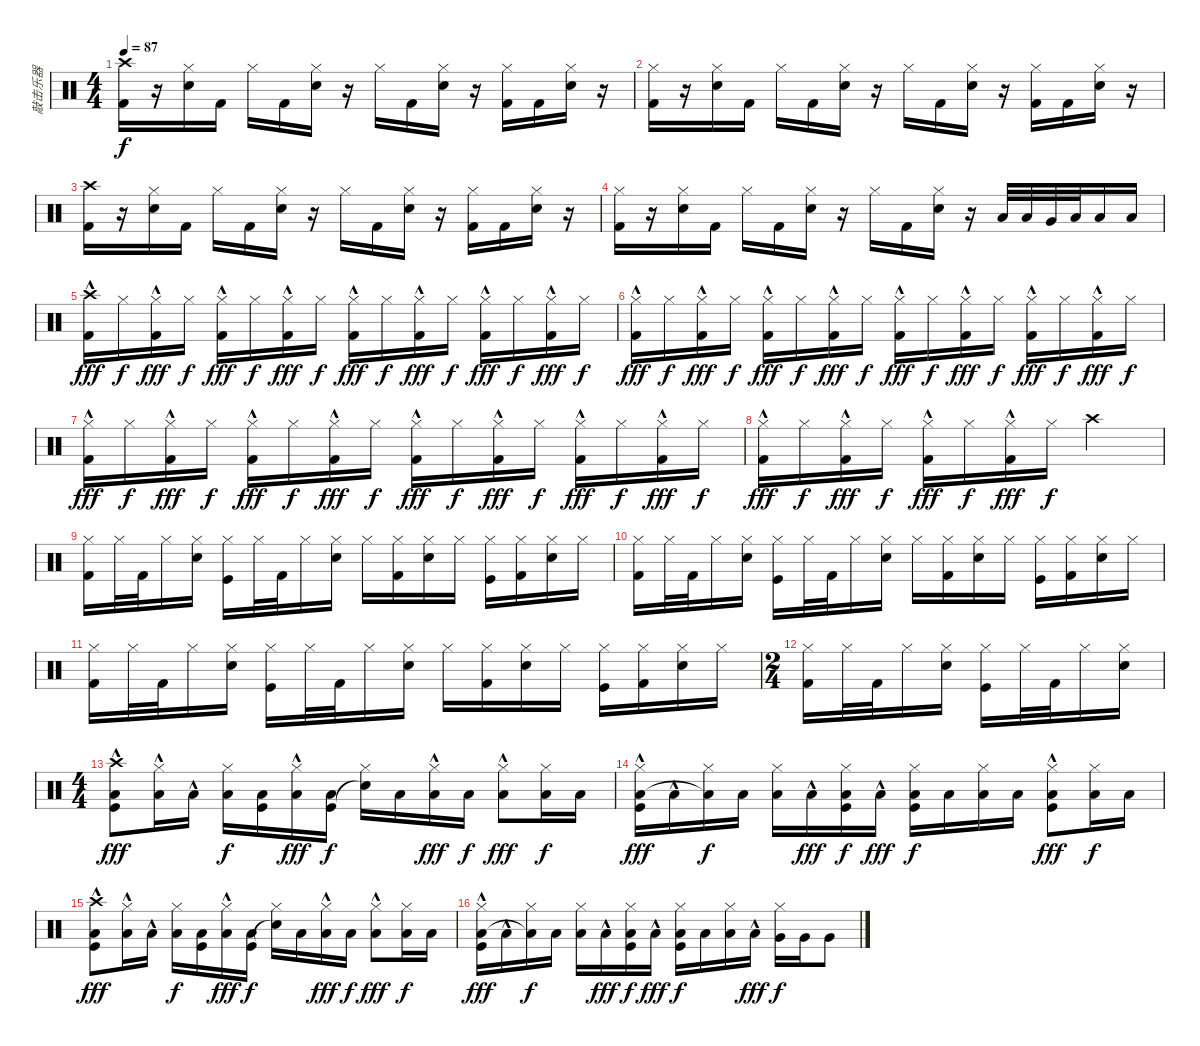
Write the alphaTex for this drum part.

\track ("敲击乐器" "敲击乐器") {instrument percussion}
\staff {score}
\articulation defaults
\ts (4 4)
\tempo 87
\clef neutral
\ks c
("Crash high (hit)" "Kick (hit) 2").16{dy f} r.16 ("Hi-Hat (closed)" "Snare (hit) 2").16 "Kick (hit) 2".16 "Hi-Hat (closed)".16 "Kick (hit) 2".16 ("Hi-Hat (closed)" "Snare (hit) 2").16 r.16 "Hi-Hat (closed)".16 "Kick (hit) 2".16 ("Hi-Hat (closed)" "Snare (hit) 2").16 r.16 ("Hi-Hat (closed)" "Kick (hit) 2").16 "Kick (hit) 2".16 ("Hi-Hat (closed)" "Snare (hit) 2").16 r.16 |
("Hi-Hat (closed)" "Kick (hit) 2").16 r.16 ("Hi-Hat (closed)" "Snare (hit) 2").16 "Kick (hit) 2".16 "Hi-Hat (closed)".16 "Kick (hit) 2".16 ("Hi-Hat (closed)" "Snare (hit) 2").16 r.16 "Hi-Hat (closed)".16 "Kick (hit) 2".16 ("Hi-Hat (closed)" "Snare (hit) 2").16 r.16 ("Hi-Hat (closed)" "Kick (hit) 2").16 "Kick (hit) 2".16 ("Hi-Hat (closed)" "Snare (hit) 2").16 r.16 |
("Crash high (hit)" "Kick (hit) 2").16 r.16 ("Hi-Hat (closed)" "Snare (hit) 2").16 "Kick (hit) 2".16 "Hi-Hat (closed)".16 "Kick (hit) 2".16 ("Hi-Hat (closed)" "Snare (hit) 2").16 r.16 "Hi-Hat (closed)".16 "Kick (hit) 2".16 ("Hi-Hat (closed)" "Snare (hit) 2").16 r.16 ("Hi-Hat (closed)" "Kick (hit) 2").16 "Kick (hit) 2".16 ("Hi-Hat (closed)" "Snare (hit) 2").16 r.16 |
("Hi-Hat (closed)" "Kick (hit) 2").16 r.16 ("Hi-Hat (closed)" "Snare (hit) 2").16 "Kick (hit) 2".16 "Hi-Hat (closed)".16 "Kick (hit) 2".16 ("Hi-Hat (closed)" "Snare (hit) 2").16 r.16 "Hi-Hat (closed)".16 "Kick (hit) 2".16 ("Hi-Hat (closed)" "Snare (hit) 2").16 r.16 "Low Tom (hit)".32 "Low Tom (hit)".32 "Very Low Tom (hit)".32 "Low Floor Tom (hit)".32 "Low Floor Tom (hit)".16 "Low Floor Tom (hit)".16 |
("Crash high (hit)"{hac} "Kick (hit) 2"{hac}).16{dy fff} "Hi-Hat (closed)".16{dy f} ("Hi-Hat (closed)"{hac} "Kick (hit) 2").16{dy fff} "Hi-Hat (closed)".16{dy f} ("Hi-Hat (closed)"{hac} "Kick (hit) 2").16{dy fff} "Hi-Hat (closed)".16{dy f} ("Hi-Hat (closed)"{hac} "Kick (hit) 2").16{dy fff} "Hi-Hat (closed)".16{dy f} ("Hi-Hat (closed)"{hac} "Kick (hit) 2").16{dy fff} "Hi-Hat (closed)".16{dy f} ("Hi-Hat (closed)"{hac} "Kick (hit) 2").16{dy fff} "Hi-Hat (closed)".16{dy f} ("Hi-Hat (closed)"{hac} "Kick (hit) 2").16{dy fff} "Hi-Hat (closed)".16{dy f} ("Hi-Hat (closed)"{hac} "Kick (hit) 2").16{dy fff} "Hi-Hat (closed)".16{dy f} |
("Hi-Hat (closed)"{hac} "Kick (hit) 2"{hac}).16{dy fff} "Hi-Hat (closed)".16{dy f} ("Hi-Hat (closed)"{hac} "Kick (hit) 2").16{dy fff} "Hi-Hat (closed)".16{dy f} ("Hi-Hat (closed)"{hac} "Kick (hit) 2").16{dy fff} "Hi-Hat (closed)".16{dy f} ("Hi-Hat (closed)"{hac} "Kick (hit) 2").16{dy fff} "Hi-Hat (closed)".16{dy f} ("Hi-Hat (closed)"{hac} "Kick (hit) 2").16{dy fff} "Hi-Hat (closed)".16{dy f} ("Hi-Hat (closed)"{hac} "Kick (hit) 2").16{dy fff} "Hi-Hat (closed)".16{dy f} ("Hi-Hat (closed)"{hac} "Kick (hit) 2").16{dy fff} "Hi-Hat (closed)".16{dy f} ("Hi-Hat (closed)"{hac} "Kick (hit) 2").16{dy fff} "Hi-Hat (closed)".16{dy f} |
("Hi-Hat (closed)"{hac} "Kick (hit) 2"{hac}).16{dy fff} "Hi-Hat (closed)".16{dy f} ("Hi-Hat (closed)"{hac} "Kick (hit) 2").16{dy fff} "Hi-Hat (closed)".16{dy f} ("Hi-Hat (closed)"{hac} "Kick (hit) 2").16{dy fff} "Hi-Hat (closed)".16{dy f} ("Hi-Hat (closed)"{hac} "Kick (hit) 2").16{dy fff} "Hi-Hat (closed)".16{dy f} ("Hi-Hat (closed)"{hac} "Kick (hit) 2").16{dy fff} "Hi-Hat (closed)".16{dy f} ("Hi-Hat (closed)"{hac} "Kick (hit) 2").16{dy fff} "Hi-Hat (closed)".16{dy f} ("Hi-Hat (closed)"{hac} "Kick (hit) 2").16{dy fff} "Hi-Hat (closed)".16{dy f} ("Hi-Hat (closed)"{hac} "Kick (hit) 2").16{dy fff} "Hi-Hat (closed)".16{dy f} |
("Hi-Hat (closed)"{hac} "Kick (hit) 2"{hac}).16{dy fff} "Hi-Hat (closed)".16{dy f} ("Hi-Hat (closed)"{hac} "Kick (hit) 2").16{dy fff} "Hi-Hat (closed)".16{dy f} ("Hi-Hat (closed)"{hac} "Kick (hit) 2").16{dy fff} "Hi-Hat (closed)".16{dy f} ("Hi-Hat (closed)"{hac} "Kick (hit) 2").16{dy fff} "Hi-Hat (closed)".16{dy f} "Crash high (hit)".2 |
("Hi-Hat (closed)" "Kick (hit) 2").16 "Hi-Hat (closed)".32 "Kick (hit) 2".32 "Hi-Hat (closed)".16 ("Hi-Hat (closed)" "Snare (hit) 2").16 ("Hi-Hat (closed)" "Kick (hit)").16 "Hi-Hat (closed)".32 "Kick (hit) 2".32 "Hi-Hat (closed)".16 ("Hi-Hat (closed)" "Snare (hit) 2").16 "Hi-Hat (closed)".16 ("Hi-Hat (closed)" "Kick (hit) 2").16 ("Hi-Hat (closed)" "Snare (hit) 2").16 "Hi-Hat (closed)".16 ("Hi-Hat (closed)" "Kick (hit)").16 ("Hi-Hat (closed)" "Kick (hit) 2").16 ("Hi-Hat (closed)" "Snare (hit) 2").16 "Hi-Hat (closed)".16 |
("Hi-Hat (closed)" "Kick (hit) 2").16 "Hi-Hat (closed)".32 "Kick (hit) 2".32 "Hi-Hat (closed)".16 ("Hi-Hat (closed)" "Snare (hit) 2").16 ("Hi-Hat (closed)" "Kick (hit)").16 "Hi-Hat (closed)".32 "Kick (hit) 2".32 "Hi-Hat (closed)".16 ("Hi-Hat (closed)" "Snare (hit) 2").16 "Hi-Hat (closed)".16 ("Hi-Hat (closed)" "Kick (hit) 2").16 ("Hi-Hat (closed)" "Snare (hit) 2").16 "Hi-Hat (closed)".16 ("Hi-Hat (closed)" "Kick (hit)").16 ("Hi-Hat (closed)" "Kick (hit) 2").16 ("Hi-Hat (closed)" "Snare (hit) 2").16 "Hi-Hat (closed)".16 |
("Hi-Hat (closed)" "Kick (hit) 2").16 "Hi-Hat (closed)".32 "Kick (hit) 2".32 "Hi-Hat (closed)".16 ("Hi-Hat (closed)" "Snare (hit) 2").16 ("Hi-Hat (closed)" "Kick (hit)").16 "Hi-Hat (closed)".32 "Kick (hit) 2".32 "Hi-Hat (closed)".16 ("Hi-Hat (closed)" "Snare (hit) 2").16 "Hi-Hat (closed)".16 ("Hi-Hat (closed)" "Kick (hit) 2").16 ("Hi-Hat (closed)" "Snare (hit) 2").16 "Hi-Hat (closed)".16 ("Hi-Hat (closed)" "Kick (hit)").16 ("Hi-Hat (closed)" "Kick (hit) 2").16 ("Hi-Hat (closed)" "Snare (hit) 2").16 "Hi-Hat (closed)".16 |
\ts (2 4)
("Hi-Hat (closed)" "Kick (hit) 2").16 "Hi-Hat (closed)".32 "Kick (hit) 2".32 "Hi-Hat (closed)".16 ("Hi-Hat (closed)" "Snare (hit) 2").16 ("Hi-Hat (closed)" "Kick (hit)").16 "Hi-Hat (closed)".32 "Kick (hit) 2".32 "Hi-Hat (closed)".16 ("Hi-Hat (closed)" "Snare (hit) 2").16 |
\ts (4 4)
("Crash high (hit)" "Low Floor Tom (hit)"{hac} "Kick (hit)").8{dy fff} ("Hi-Hat (closed)" "Low Floor Tom (hit)"{hac}).16 "Low Floor Tom (hit)"{hac}.16 ("Hi-Hat (closed)" "Low Floor Tom (hit)").16{dy f} ("Low Floor Tom (hit)" "Kick (hit)").16 ("Hi-Hat (closed)" "Low Floor Tom (hit)"{hac}).16{dy fff} ("Low Floor Tom (hit)" "Kick (hit)").16{dy f} ("Hi-Hat (closed)" "Snare (hit)"{t}).16 "Low Floor Tom (hit)".16 ("Hi-Hat (closed)" "Low Floor Tom (hit)"{hac}).16{dy fff} "Low Floor Tom (hit)".16{dy f} ("Hi-Hat (closed)" "Low Floor Tom (hit)"{hac}).8{dy fff} ("Hi-Hat (closed)" "Low Floor Tom (hit)").16{dy f} "Low Floor Tom (hit)".16 |
("Hi-Hat (closed)" "Low Floor Tom (hit)"{hac} "Kick (hit)").16{dy fff} "Low Floor Tom (hit)"{hac}.16 ("Hi-Hat (closed)" "Low Floor Tom (hit)"{t}).16{dy f} "Low Floor Tom (hit)".16 ("Hi-Hat (closed)" "Low Floor Tom (hit)").16 "Low Floor Tom (hit)"{hac}.16{dy fff} ("Hi-Hat (closed)" "Low Floor Tom (hit)" "Kick (hit)").16{dy f} "Low Floor Tom (hit)"{hac}.16{dy fff} ("Hi-Hat (closed)" "Low Floor Tom (hit)" "Kick (hit)").16{dy f} "Low Floor Tom (hit)".16 ("Hi-Hat (closed)" "Low Floor Tom (hit)").16 "Low Floor Tom (hit)".16 ("Hi-Hat (closed)" "Low Floor Tom (hit)"{hac} "Kick (hit)").8{dy fff} ("Hi-Hat (closed)" "Low Floor Tom (hit)").16{dy f} "Low Floor Tom (hit)".16 |
("Crash high (hit)" "Low Floor Tom (hit)"{hac} "Kick (hit)").8{dy fff} ("Hi-Hat (closed)" "Low Floor Tom (hit)"{hac}).16 "Low Floor Tom (hit)"{hac}.16 ("Hi-Hat (closed)" "Low Floor Tom (hit)").16{dy f} ("Low Floor Tom (hit)" "Kick (hit)").16 ("Hi-Hat (closed)" "Low Floor Tom (hit)"{hac}).16{dy fff} ("Low Floor Tom (hit)" "Kick (hit)").16{dy f} ("Hi-Hat (closed)" "Snare (hit)"{t}).16 "Low Floor Tom (hit)".16 ("Hi-Hat (closed)" "Low Floor Tom (hit)"{hac}).16{dy fff} "Low Floor Tom (hit)".16{dy f} ("Hi-Hat (closed)" "Low Floor Tom (hit)"{hac}).8{dy fff} ("Hi-Hat (closed)" "Low Floor Tom (hit)").16{dy f} "Low Floor Tom (hit)".16 |
("Hi-Hat (closed)" "Low Floor Tom (hit)"{hac} "Kick (hit)").16{dy fff} "Low Floor Tom (hit)"{hac}.16 ("Hi-Hat (closed)" "Low Floor Tom (hit)"{t}).16{dy f} "Low Floor Tom (hit)".16 ("Hi-Hat (closed)" "Low Floor Tom (hit)").16 "Low Floor Tom (hit)"{hac}.16{dy fff} ("Hi-Hat (closed)" "Low Floor Tom (hit)" "Kick (hit)").16{dy f} "Low Floor Tom (hit)"{hac}.16{dy fff} ("Hi-Hat (closed)" "Low Floor Tom (hit)" "Kick (hit)").16{dy f} "Low Floor Tom (hit)".16 ("Hi-Hat (closed)" "Low Floor Tom (hit)").16 "Low Floor Tom (hit)"{hac}.16{dy fff} ("Hi-Hat (closed)" "Very Low Tom (hit)").16{dy f} "Very Low Tom (hit)".16 "Very Low Tom (hit)".8
